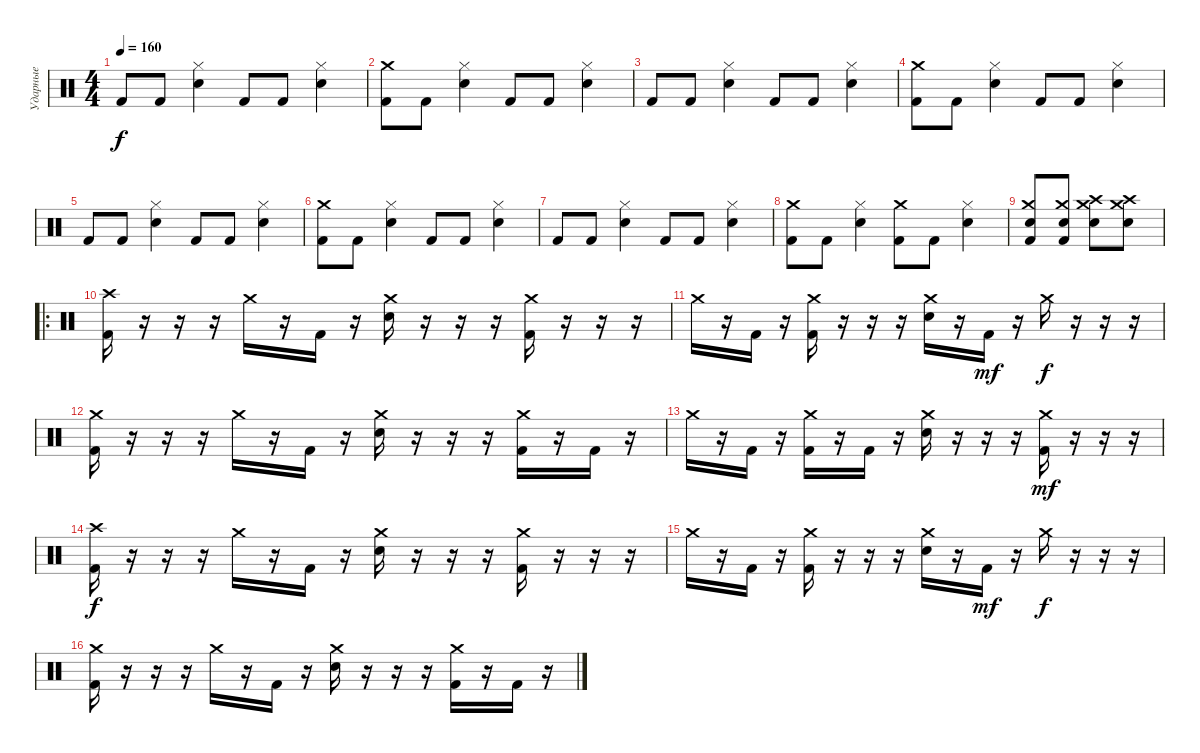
\track ("Ударные" "Ударные") {instrument percussion}
\staff {score}
\articulation defaults
\ts (4 4)
\tempo 160
\clef neutral
\ks c "Kick (hit) 2".8{dy f} "Kick (hit) 2".8
("Hi-Hat (closed)" "Electric Snare (hit)").4 "Kick (hit) 2".8 "Kick (hit) 2".8 ("Hi-Hat (closed)" "Electric Snare (hit)").4 |
("Crash medium (hit)" "Kick (hit) 2").8 "Kick (hit) 2".8 ("Hi-Hat (closed)" "Electric Snare (hit)").4 "Kick (hit) 2".8 "Kick (hit) 2".8 ("Hi-Hat (closed)" "Electric Snare (hit)").4 |
"Kick (hit) 2".8 "Kick (hit) 2".8 ("Hi-Hat (closed)" "Electric Snare (hit)").4 "Kick (hit) 2".8 "Kick (hit) 2".8 ("Hi-Hat (closed)" "Electric Snare (hit)").4 |
("Crash medium (hit)" "Kick (hit) 2").8 "Kick (hit) 2".8 ("Hi-Hat (closed)" "Electric Snare (hit)").4 "Kick (hit) 2".8 "Kick (hit) 2".8 ("Hi-Hat (closed)" "Electric Snare (hit)").4 |
"Kick (hit) 2".8 "Kick (hit) 2".8 ("Hi-Hat (closed)" "Electric Snare (hit)").4 "Kick (hit) 2".8 "Kick (hit) 2".8 ("Hi-Hat (closed)" "Electric Snare (hit)").4 |
("Crash medium (hit)" "Kick (hit) 2").8 "Kick (hit) 2".8 ("Hi-Hat (closed)" "Electric Snare (hit)").4 "Kick (hit) 2".8 "Kick (hit) 2".8 ("Hi-Hat (closed)" "Electric Snare (hit)").4 |
"Kick (hit) 2".8 "Kick (hit) 2".8 ("Hi-Hat (closed)" "Electric Snare (hit)").4 "Kick (hit) 2".8 "Kick (hit) 2".8 ("Hi-Hat (closed)" "Electric Snare (hit)").4 |
("Crash medium (hit)" "Kick (hit) 2").8 "Kick (hit) 2".8 ("Hi-Hat (closed)" "Electric Snare (hit)").4 ("Crash medium (hit)" "Kick (hit) 2").8 "Kick (hit) 2".8 ("Hi-Hat (closed)" "Electric Snare (hit)").4 |
("Crash medium (hit)" "Kick (hit) 2" "Snare (hit) 2").8 ("Crash medium (hit)" "Kick (hit) 2" "Snare (hit) 2").8 ("Crash high (hit)" "Electric Snare (hit)" "Crash medium (hit)").8 ("Crash high (hit)" "Electric Snare (hit)" "Crash medium (hit)").8 |
\ro
("Crash high (hit)" "Kick (hit) 2").16{volume 16} r.16 r.16 r.16 "Crash medium (hit)".16 r.16 "Kick (hit) 2".16 r.16 ("Crash medium (hit)" "Electric Snare (hit)").16 r.16 r.16 r.16 ("Crash medium (hit)" "Kick (hit) 2").16 r.16 r.16 r.16 |
"Crash medium (hit)".16 r.16 "Kick (hit) 2".16 r.16 ("Crash medium (hit)" "Kick (hit) 2").16 r.16 r.16 r.16 ("Crash medium (hit)" "Electric Snare (hit)").16 r.16 "Kick (hit) 2".16{dy mf} r.16 "Crash medium (hit)".16{dy f} r.16 r.16 r.16 |
("Crash medium (hit)" "Kick (hit) 2").16 r.16 r.16 r.16 "Crash medium (hit)".16 r.16 "Kick (hit) 2".16 r.16 ("Crash medium (hit)" "Electric Snare (hit)").16 r.16 r.16 r.16 ("Crash medium (hit)" "Kick (hit) 2").16 r.16 "Kick (hit) 2".16 r.16 |
"Crash medium (hit)".16 r.16 "Kick (hit) 2".16 r.16 ("Crash medium (hit)" "Kick (hit) 2").16 r.16 "Kick (hit) 2".16 r.16 ("Crash medium (hit)" "Electric Snare (hit)").16 r.16 r.16 r.16 ("Crash medium (hit)" "Kick (hit) 2").16{dy mf} r.16 r.16 r.16 |
("Crash high (hit)" "Kick (hit) 2").16{dy f} r.16 r.16 r.16 "Crash medium (hit)".16 r.16 "Kick (hit) 2".16 r.16 ("Crash medium (hit)" "Electric Snare (hit)").16 r.16 r.16 r.16 ("Crash medium (hit)" "Kick (hit) 2").16 r.16 r.16 r.16 |
"Crash medium (hit)".16 r.16 "Kick (hit) 2".16 r.16 ("Crash medium (hit)" "Kick (hit) 2").16 r.16 r.16 r.16 ("Crash medium (hit)" "Electric Snare (hit)").16 r.16 "Kick (hit) 2".16{dy mf} r.16 "Crash medium (hit)".16{dy f} r.16 r.16 r.16 |
("Crash medium (hit)" "Kick (hit) 2").16 r.16 r.16 r.16 "Crash medium (hit)".16 r.16 "Kick (hit) 2".16 r.16 ("Crash medium (hit)" "Electric Snare (hit)").16 r.16 r.16 r.16 ("Crash medium (hit)" "Kick (hit) 2").16 r.16 "Kick (hit) 2".16 r.16
